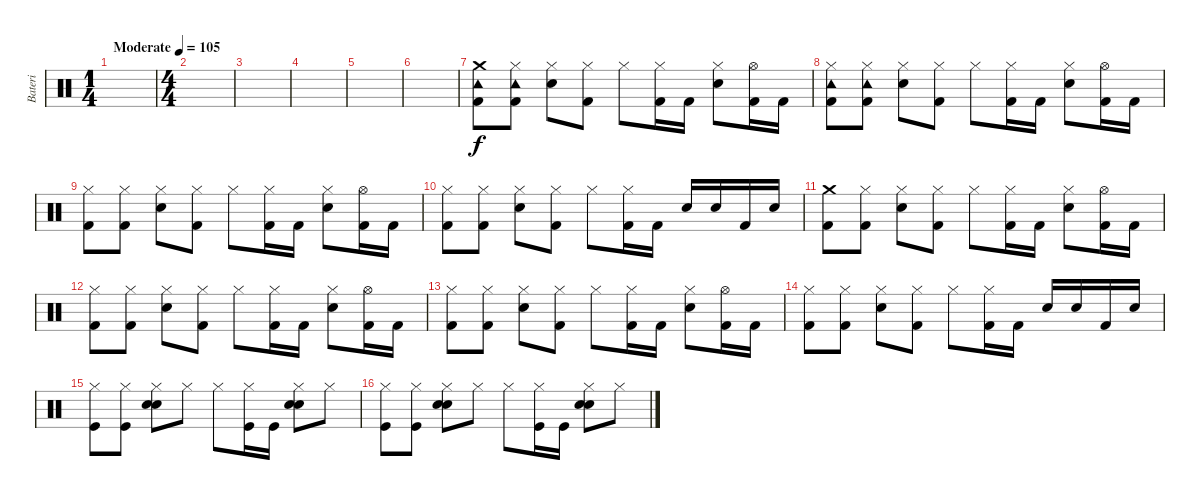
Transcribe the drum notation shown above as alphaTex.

\track ("Bateri" "Bateri") {instrument percussion}
\staff {score}
\articulation defaults
\ts (1 4)
\tempo (105 "Moderate")
\clef neutral
\ks c
|
\ts (4 4)
|
|
|
|
|
("Crash medium (hit)" "Kick (hit) 2" "Tambourine (hit)").8 ("Hi-Hat (closed)" "Kick (hit) 2" "Tambourine (hit)").8 ("Hi-Hat (closed)" "Electric Snare (hit)").8 ("Hi-Hat (closed)" "Kick (hit) 2").8 "Hi-Hat (closed)".8 ("Hi-Hat (closed)" "Kick (hit) 2").16 "Kick (hit) 2".16 ("Hi-Hat (closed)" "Electric Snare (hit)").8 ("Hi-Hat (open)" "Kick (hit) 2").16 "Kick (hit) 2".16 |
("Hi-Hat (closed)" "Kick (hit) 2" "Tambourine (hit)").8 ("Hi-Hat (closed)" "Kick (hit) 2" "Tambourine (hit)").8 ("Hi-Hat (closed)" "Electric Snare (hit)").8 ("Hi-Hat (closed)" "Kick (hit) 2").8 "Hi-Hat (closed)".8 ("Hi-Hat (closed)" "Kick (hit) 2").16 "Kick (hit) 2".16 ("Hi-Hat (closed)" "Electric Snare (hit)").8 ("Hi-Hat (open)" "Kick (hit) 2").16 "Kick (hit) 2".16 |
("Hi-Hat (closed)" "Kick (hit) 2").8 ("Hi-Hat (closed)" "Kick (hit) 2").8 ("Hi-Hat (closed)" "Electric Snare (hit)").8 ("Hi-Hat (closed)" "Kick (hit) 2").8 "Hi-Hat (closed)".8 ("Hi-Hat (closed)" "Kick (hit) 2").16 "Kick (hit) 2".16 ("Hi-Hat (closed)" "Electric Snare (hit)").8 ("Hi-Hat (open)" "Kick (hit) 2").16 "Kick (hit) 2".16 |
("Hi-Hat (closed)" "Kick (hit) 2").8 ("Hi-Hat (closed)" "Kick (hit) 2").8 ("Hi-Hat (closed)" "Electric Snare (hit)").8 ("Hi-Hat (closed)" "Kick (hit) 2").8 "Hi-Hat (closed)".8 ("Hi-Hat (closed)" "Kick (hit) 2").16 "Kick (hit) 2".16 "Electric Snare (hit)".16 "Electric Snare (hit)".16 "Kick (hit) 2".16 "Electric Snare (hit)".16 |
("Crash medium (hit)" "Kick (hit) 2").8 ("Hi-Hat (closed)" "Kick (hit) 2").8 ("Hi-Hat (closed)" "Electric Snare (hit)").8 ("Hi-Hat (closed)" "Kick (hit) 2").8 "Hi-Hat (closed)".8 ("Hi-Hat (closed)" "Kick (hit) 2").16 "Kick (hit) 2".16 ("Hi-Hat (closed)" "Electric Snare (hit)").8 ("Hi-Hat (open)" "Kick (hit) 2").16 "Kick (hit) 2".16 |
("Hi-Hat (closed)" "Kick (hit) 2").8 ("Hi-Hat (closed)" "Kick (hit) 2").8 ("Hi-Hat (closed)" "Electric Snare (hit)").8 ("Hi-Hat (closed)" "Kick (hit) 2").8 "Hi-Hat (closed)".8 ("Hi-Hat (closed)" "Kick (hit) 2").16 "Kick (hit) 2".16 ("Hi-Hat (closed)" "Electric Snare (hit)").8 ("Hi-Hat (open)" "Kick (hit) 2").16 "Kick (hit) 2".16 |
("Hi-Hat (closed)" "Kick (hit) 2").8 ("Hi-Hat (closed)" "Kick (hit) 2").8 ("Hi-Hat (closed)" "Electric Snare (hit)").8 ("Hi-Hat (closed)" "Kick (hit) 2").8 "Hi-Hat (closed)".8 ("Hi-Hat (closed)" "Kick (hit) 2").16 "Kick (hit) 2".16 ("Hi-Hat (closed)" "Electric Snare (hit)").8 ("Hi-Hat (open)" "Kick (hit) 2").16 "Kick (hit) 2".16 |
("Hi-Hat (closed)" "Kick (hit) 2").8 ("Hi-Hat (closed)" "Kick (hit) 2").8 ("Hi-Hat (closed)" "Electric Snare (hit)").8 ("Hi-Hat (closed)" "Kick (hit) 2").8 "Hi-Hat (closed)".8 ("Hi-Hat (closed)" "Kick (hit) 2").16 "Kick (hit) 2".16 "Electric Snare (hit)".16 "Electric Snare (hit)".16 "Kick (hit) 2".16 "Electric Snare (hit)".16 |
("Hi-Hat (closed)" "Kick (hit)").8 ("Hi-Hat (closed)" "Kick (hit)").8 ("Hi-Hat (closed)" "Hand Clap (hit)" "Snare (hit) 2").8 "Hi-Hat (closed)".8 "Hi-Hat (closed)".8 ("Hi-Hat (closed)" "Kick (hit)").16 "Kick (hit)".16 ("Hi-Hat (closed)" "Hand Clap (hit)" "Snare (hit) 2").8 "Hi-Hat (closed)".8 |
("Hi-Hat (closed)" "Kick (hit)").8 ("Hi-Hat (closed)" "Kick (hit)").8 ("Hi-Hat (closed)" "Hand Clap (hit)" "Snare (hit) 2").8 "Hi-Hat (closed)".8 "Hi-Hat (closed)".8 ("Hi-Hat (closed)" "Kick (hit)").16 "Kick (hit)".16 ("Hi-Hat (closed)" "Hand Clap (hit)" "Snare (hit) 2").8 "Hi-Hat (closed)".8
